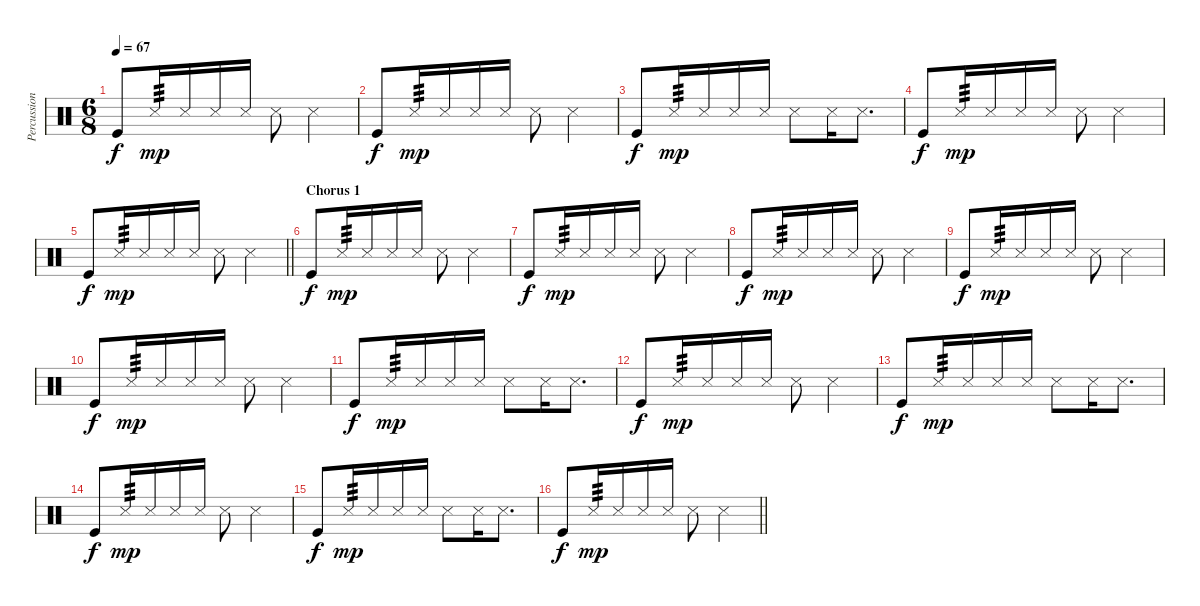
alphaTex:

\track ("Percussions" "Percussion") {instrument percussion}
\staff {score}
\articulation defaults
\ts (6 8)
\tempo 67
\clef neutral
\ks c "Kick (hit)".8{dy f} "Snare (side stick) 3".16{tp 3 dy mp} "Snare (side stick) 3".16 "Snare (side stick) 3".16 "Snare (side stick) 3".16 "Snare (side stick) 3".8 "Snare (side stick) 3".4
|
"Kick (hit)".8{dy f} "Snare (side stick) 3".16{tp 3 dy mp} "Snare (side stick) 3".16 "Snare (side stick) 3".16 "Snare (side stick) 3".16 "Snare (side stick) 3".8 "Snare (side stick) 3".4 |
"Kick (hit)".8{dy f} "Snare (side stick) 3".16{tp 3 dy mp} "Snare (side stick) 3".16 "Snare (side stick) 3".16 "Snare (side stick) 3".16 "Snare (side stick) 3".8 "Snare (side stick) 3".16 "Snare (side stick) 3".8{d} |
"Kick (hit)".8{dy f} "Snare (side stick) 3".16{tp 3 dy mp} "Snare (side stick) 3".16 "Snare (side stick) 3".16 "Snare (side stick) 3".16 "Snare (side stick) 3".8 "Snare (side stick) 3".4 |
\barLineRight lightlight "Kick (hit)".8{dy f} "Snare (side stick) 3".16{tp 3 dy mp} "Snare (side stick) 3".16 "Snare (side stick) 3".16 "Snare (side stick) 3".16 "Snare (side stick) 3".8 "Snare (side stick) 3".4
|
\section ("" "Chorus 1")
"Kick (hit)".8{dy f} "Snare (side stick) 3".16{tp 3 dy mp} "Snare (side stick) 3".16 "Snare (side stick) 3".16 "Snare (side stick) 3".16 "Snare (side stick) 3".8 "Snare (side stick) 3".4 |
"Kick (hit)".8{dy f} "Snare (side stick) 3".16{tp 3 dy mp} "Snare (side stick) 3".16 "Snare (side stick) 3".16 "Snare (side stick) 3".16 "Snare (side stick) 3".8 "Snare (side stick) 3".4 |
"Kick (hit)".8{dy f} "Snare (side stick) 3".16{tp 3 dy mp} "Snare (side stick) 3".16 "Snare (side stick) 3".16 "Snare (side stick) 3".16 "Snare (side stick) 3".8 "Snare (side stick) 3".4 |
"Kick (hit)".8{dy f} "Snare (side stick) 3".16{tp 3 dy mp} "Snare (side stick) 3".16 "Snare (side stick) 3".16 "Snare (side stick) 3".16 "Snare (side stick) 3".8 "Snare (side stick) 3".4 |
"Kick (hit)".8{dy f} "Snare (side stick) 3".16{tp 3 dy mp} "Snare (side stick) 3".16 "Snare (side stick) 3".16 "Snare (side stick) 3".16 "Snare (side stick) 3".8 "Snare (side stick) 3".4 |
"Kick (hit)".8{dy f} "Snare (side stick) 3".16{tp 3 dy mp} "Snare (side stick) 3".16 "Snare (side stick) 3".16 "Snare (side stick) 3".16 "Snare (side stick) 3".8 "Snare (side stick) 3".16 "Snare (side stick) 3".8{d} |
"Kick (hit)".8{dy f} "Snare (side stick) 3".16{tp 3 dy mp} "Snare (side stick) 3".16 "Snare (side stick) 3".16 "Snare (side stick) 3".16 "Snare (side stick) 3".8 "Snare (side stick) 3".4 |
"Kick (hit)".8{dy f} "Snare (side stick) 3".16{tp 3 dy mp} "Snare (side stick) 3".16 "Snare (side stick) 3".16 "Snare (side stick) 3".16 "Snare (side stick) 3".8 "Snare (side stick) 3".16 "Snare (side stick) 3".8{d} |
"Kick (hit)".8{dy f} "Snare (side stick) 3".16{tp 3 dy mp} "Snare (side stick) 3".16 "Snare (side stick) 3".16 "Snare (side stick) 3".16 "Snare (side stick) 3".8 "Snare (side stick) 3".4 |
"Kick (hit)".8{dy f} "Snare (side stick) 3".16{tp 3 dy mp} "Snare (side stick) 3".16 "Snare (side stick) 3".16 "Snare (side stick) 3".16 "Snare (side stick) 3".8 "Snare (side stick) 3".16 "Snare (side stick) 3".8{d} |
\barLineRight lightlight "Kick (hit)".8{dy f} "Snare (side stick) 3".16{tp 3 dy mp} "Snare (side stick) 3".16 "Snare (side stick) 3".16 "Snare (side stick) 3".16 "Snare (side stick) 3".8 "Snare (side stick) 3".4
